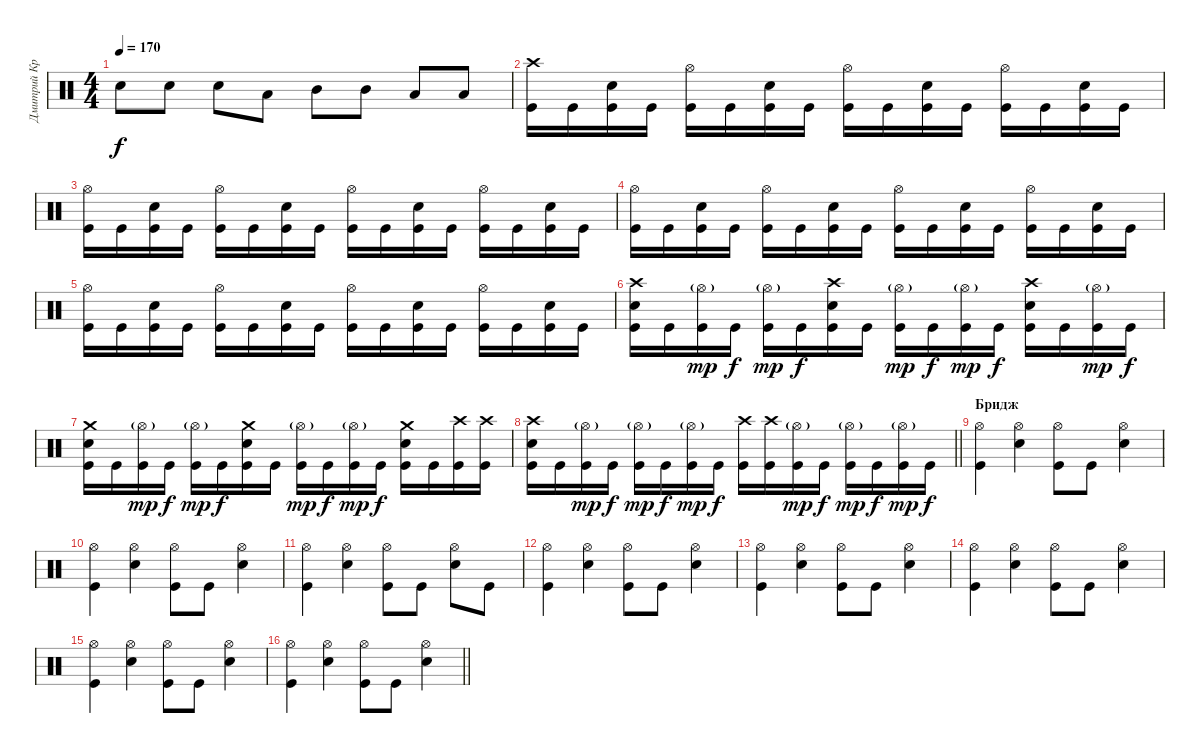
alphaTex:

\track ("Дмитрий Кривенков" "Дмитрий Кр") {instrument percussion}
\staff {score}
\articulation defaults
\ts (4 4)
\tempo 170
\clef neutral
\ks c "Snare (hit) 2".8{dy f} "Snare (hit) 2".8 "Snare (hit) 2".8 "Low Tom (hit)".8 "Mid Tom (hit)".8 "Mid Tom (hit)".8 "Low Tom (hit)".8 "Low Tom (hit)".8
|
("Crash high (hit)" "Kick (hit)").16 "Kick (hit)".16 ("Snare (hit) 2" "Kick (hit)").16 "Kick (hit)".16 ("Hi-Hat (open)" "Kick (hit)").16 "Kick (hit)".16 ("Snare (hit) 2" "Kick (hit)").16 "Kick (hit)".16 ("Hi-Hat (open)" "Kick (hit)").16 "Kick (hit)".16 ("Snare (hit) 2" "Kick (hit)").16 "Kick (hit)".16 ("Hi-Hat (open)" "Kick (hit)").16 "Kick (hit)".16 ("Snare (hit) 2" "Kick (hit)").16 "Kick (hit)".16 |
("Hi-Hat (open)" "Kick (hit)").16 "Kick (hit)".16 ("Snare (hit) 2" "Kick (hit)").16 "Kick (hit)".16 ("Hi-Hat (open)" "Kick (hit)").16 "Kick (hit)".16 ("Snare (hit) 2" "Kick (hit)").16 "Kick (hit)".16 ("Hi-Hat (open)" "Kick (hit)").16 "Kick (hit)".16 ("Snare (hit) 2" "Kick (hit)").16 "Kick (hit)".16 ("Hi-Hat (open)" "Kick (hit)").16 "Kick (hit)".16 ("Snare (hit) 2" "Kick (hit)").16 "Kick (hit)".16 |
("Hi-Hat (open)" "Kick (hit)").16 "Kick (hit)".16 ("Snare (hit) 2" "Kick (hit)").16 "Kick (hit)".16 ("Hi-Hat (open)" "Kick (hit)").16 "Kick (hit)".16 ("Snare (hit) 2" "Kick (hit)").16 "Kick (hit)".16 ("Hi-Hat (open)" "Kick (hit)").16 "Kick (hit)".16 ("Snare (hit) 2" "Kick (hit)").16 "Kick (hit)".16 ("Hi-Hat (open)" "Kick (hit)").16 "Kick (hit)".16 ("Snare (hit) 2" "Kick (hit)").16 "Kick (hit)".16 |
("Hi-Hat (open)" "Kick (hit)").16 "Kick (hit)".16 ("Snare (hit) 2" "Kick (hit)").16 "Kick (hit)".16 ("Hi-Hat (open)" "Kick (hit)").16 "Kick (hit)".16 ("Snare (hit) 2" "Kick (hit)").16 "Kick (hit)".16 ("Hi-Hat (open)" "Kick (hit)").16 "Kick (hit)".16 ("Snare (hit) 2" "Kick (hit)").16 "Kick (hit)".16 ("Hi-Hat (open)" "Kick (hit)").16 "Kick (hit)".16 ("Snare (hit) 2" "Kick (hit)").16 "Kick (hit)".16 |
("Crash high (hit)" "Snare (hit) 2" "Kick (hit)").16 "Kick (hit)".16 ("Hi-Hat (open)"{g} "Kick (hit)").16{dy mp} "Kick (hit)".16{dy f} ("Hi-Hat (open)"{g} "Kick (hit)").16{dy mp} "Kick (hit)".16{dy f} ("Crash high (hit)" "Snare (hit) 2" "Kick (hit)").16 "Kick (hit)".16 ("Hi-Hat (open)"{g} "Kick (hit)").16{dy mp} "Kick (hit)".16{dy f} ("Hi-Hat (open)"{g} "Kick (hit)").16{dy mp} "Kick (hit)".16{dy f} ("Crash high (hit)" "Snare (hit) 2" "Kick (hit)").16 "Kick (hit)".16 ("Hi-Hat (open)"{g} "Kick (hit)").16{dy mp} "Kick (hit)".16{dy f} |
("Crash medium (hit)" "Snare (hit) 2" "Kick (hit)").16 "Kick (hit)".16 ("Hi-Hat (open)"{g} "Kick (hit)").16{dy mp} "Kick (hit)".16{dy f} ("Hi-Hat (open)"{g} "Kick (hit)").16{dy mp} "Kick (hit)".16{dy f} ("Crash medium (hit)" "Snare (hit) 2" "Kick (hit)").16 "Kick (hit)".16 ("Hi-Hat (open)"{g} "Kick (hit)").16{dy mp} "Kick (hit)".16{dy f} ("Hi-Hat (open)"{g} "Kick (hit)").16{dy mp} "Kick (hit)".16{dy f} ("Crash medium (hit)" "Snare (hit) 2" "Kick (hit)").16 "Kick (hit)".16 ("Crash high (hit)" "Kick (hit)").16 ("Crash high (hit)" "Kick (hit)").16 |
\barLineRight lightlight
("Crash high (hit)" "Snare (hit) 2" "Kick (hit)").16 "Kick (hit)".16 ("Hi-Hat (open)"{g} "Kick (hit)").16{dy mp} "Kick (hit)".16{dy f} ("Hi-Hat (open)"{g} "Kick (hit)").16{dy mp} "Kick (hit)".16{dy f} ("Hi-Hat (open)"{g} "Kick (hit)").16{dy mp} "Kick (hit)".16{dy f} ("Crash high (hit)" "Kick (hit)").16 ("Crash high (hit)" "Kick (hit)").16 ("Hi-Hat (open)"{g} "Kick (hit)").16{dy mp} "Kick (hit)".16{dy f} ("Hi-Hat (open)"{g} "Kick (hit)").16{dy mp} "Kick (hit)".16{dy f} ("Hi-Hat (open)"{g} "Kick (hit)").16{dy mp} "Kick (hit)".16{dy f} |
\section ("" "Бридж")
("Hi-Hat (open)" "Kick (hit)").4 ("Hi-Hat (open)" "Snare (hit) 2").4 ("Hi-Hat (open)" "Kick (hit)").8 "Kick (hit)".8 ("Hi-Hat (open)" "Snare (hit) 2").4 |
("Hi-Hat (open)" "Kick (hit)").4 ("Hi-Hat (open)" "Snare (hit) 2").4 ("Hi-Hat (open)" "Kick (hit)").8 "Kick (hit)".8 ("Hi-Hat (open)" "Snare (hit) 2").4 |
("Hi-Hat (open)" "Kick (hit)").4 ("Hi-Hat (open)" "Snare (hit) 2").4 ("Hi-Hat (open)" "Kick (hit)").8 "Kick (hit)".8 ("Hi-Hat (open)" "Snare (hit) 2").8 "Kick (hit)".8 |
("Hi-Hat (open)" "Kick (hit)").4 ("Hi-Hat (open)" "Snare (hit) 2").4 ("Hi-Hat (open)" "Kick (hit)").8 "Kick (hit)".8 ("Hi-Hat (open)" "Snare (hit) 2").4 |
("Hi-Hat (open)" "Kick (hit)").4 ("Hi-Hat (open)" "Snare (hit) 2").4 ("Hi-Hat (open)" "Kick (hit)").8 "Kick (hit)".8 ("Hi-Hat (open)" "Snare (hit) 2").4 |
("Hi-Hat (open)" "Kick (hit)").4 ("Hi-Hat (open)" "Snare (hit) 2").4 ("Hi-Hat (open)" "Kick (hit)").8 "Kick (hit)".8 ("Hi-Hat (open)" "Snare (hit) 2").4 |
("Hi-Hat (open)" "Kick (hit)").4 ("Hi-Hat (open)" "Snare (hit) 2").4 ("Hi-Hat (open)" "Kick (hit)").8 "Kick (hit)".8 ("Hi-Hat (open)" "Snare (hit) 2").4 |
\barLineRight lightlight
("Hi-Hat (open)" "Kick (hit)").4 ("Hi-Hat (open)" "Snare (hit) 2").4 ("Hi-Hat (open)" "Kick (hit)").8 "Kick (hit)".8 ("Hi-Hat (open)" "Snare (hit) 2").4
